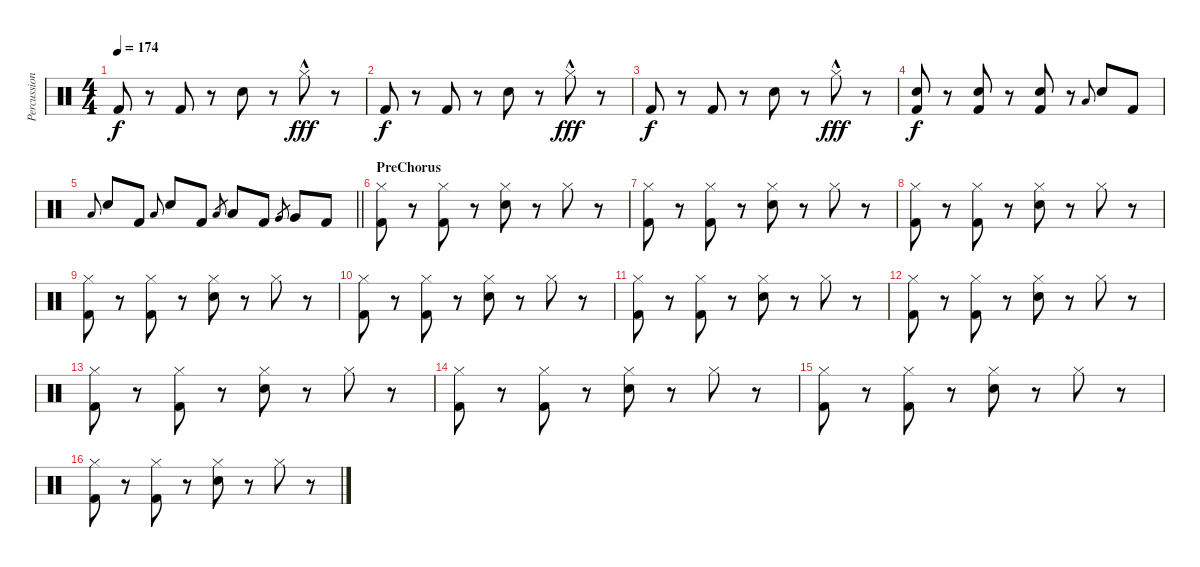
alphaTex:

\track ("Percussion" "Percussion") {instrument percussion}
\staff {score}
\articulation defaults
\ts (4 4)
\tempo 174
\clef neutral
\ks c "Kick (hit) 2".8{dy f}
r.8 "Kick (hit) 2".8 r.8 "Snare (hit) 2".8 r.8 "Hi-Hat (closed)"{hac}.8{dy fff} r.8 |
"Kick (hit) 2".8{dy f} r.8 "Kick (hit) 2".8 r.8 "Snare (hit) 2".8 r.8 "Hi-Hat (closed)"{hac}.8{dy fff} r.8 |
"Kick (hit) 2".8{dy f} r.8 "Kick (hit) 2".8 r.8 "Snare (hit) 2".8 r.8 "Hi-Hat (closed)"{hac}.8{dy fff} r.8 |
("Snare (hit) 2" "Kick (hit) 2").8{dy f} r.8 ("Snare (hit) 2" "Kick (hit) 2").8 r.8 ("Snare (hit) 2" "Kick (hit) 2").8 r.8 "Low Tom (hit)".8{gr onbeat} "Snare (hit) 2".8 "Kick (hit) 2".8 |
\barLineRight lightlight "Low Tom (hit)".8{gr onbeat} "Snare (hit) 2".8 "Kick (hit) 2".8 "Low Tom (hit)".8{gr onbeat} "Snare (hit) 2".8 "Kick (hit) 2".8 "Low Tom (hit)".8{gr} "Low Tom (hit)".8 "Kick (hit) 2".8 "Very Low Tom (hit)".8{gr} "Very Low Tom (hit)".8 "Kick (hit) 2".8
|
\section ("" "PreChorus")
("Hi-Hat (closed)" "Kick (hit) 2").8 r.8 ("Hi-Hat (closed)" "Kick (hit) 2").8 r.8 ("Hi-Hat (closed)" "Snare (hit) 2").8 r.8 "Hi-Hat (closed)".8 r.8 |
("Hi-Hat (closed)" "Kick (hit) 2").8 r.8 ("Hi-Hat (closed)" "Kick (hit) 2").8 r.8 ("Hi-Hat (closed)" "Snare (hit) 2").8 r.8 "Hi-Hat (closed)".8 r.8 |
("Hi-Hat (closed)" "Kick (hit) 2").8 r.8 ("Hi-Hat (closed)" "Kick (hit) 2").8 r.8 ("Hi-Hat (closed)" "Snare (hit) 2").8 r.8 "Hi-Hat (closed)".8 r.8 |
("Hi-Hat (closed)" "Kick (hit) 2").8 r.8 ("Hi-Hat (closed)" "Kick (hit) 2").8 r.8 ("Hi-Hat (closed)" "Snare (hit) 2").8 r.8 "Hi-Hat (closed)".8 r.8 |
("Hi-Hat (closed)" "Kick (hit) 2").8 r.8 ("Hi-Hat (closed)" "Kick (hit) 2").8 r.8 ("Hi-Hat (closed)" "Snare (hit) 2").8 r.8 "Hi-Hat (closed)".8 r.8 |
("Hi-Hat (closed)" "Kick (hit) 2").8 r.8 ("Hi-Hat (closed)" "Kick (hit) 2").8 r.8 ("Hi-Hat (closed)" "Snare (hit) 2").8 r.8 "Hi-Hat (closed)".8 r.8 |
("Hi-Hat (closed)" "Kick (hit) 2").8 r.8 ("Hi-Hat (closed)" "Kick (hit) 2").8 r.8 ("Hi-Hat (closed)" "Snare (hit) 2").8 r.8 "Hi-Hat (closed)".8 r.8 |
("Hi-Hat (closed)" "Kick (hit) 2").8 r.8 ("Hi-Hat (closed)" "Kick (hit) 2").8 r.8 ("Hi-Hat (closed)" "Snare (hit) 2").8 r.8 "Hi-Hat (closed)".8 r.8 |
("Hi-Hat (closed)" "Kick (hit) 2").8 r.8 ("Hi-Hat (closed)" "Kick (hit) 2").8 r.8 ("Hi-Hat (closed)" "Snare (hit) 2").8 r.8 "Hi-Hat (closed)".8 r.8 |
("Hi-Hat (closed)" "Kick (hit) 2").8 r.8 ("Hi-Hat (closed)" "Kick (hit) 2").8 r.8 ("Hi-Hat (closed)" "Snare (hit) 2").8 r.8 "Hi-Hat (closed)".8 r.8 |
("Hi-Hat (closed)" "Kick (hit) 2").8 r.8 ("Hi-Hat (closed)" "Kick (hit) 2").8 r.8 ("Hi-Hat (closed)" "Snare (hit) 2").8 r.8 "Hi-Hat (closed)".8 r.8
